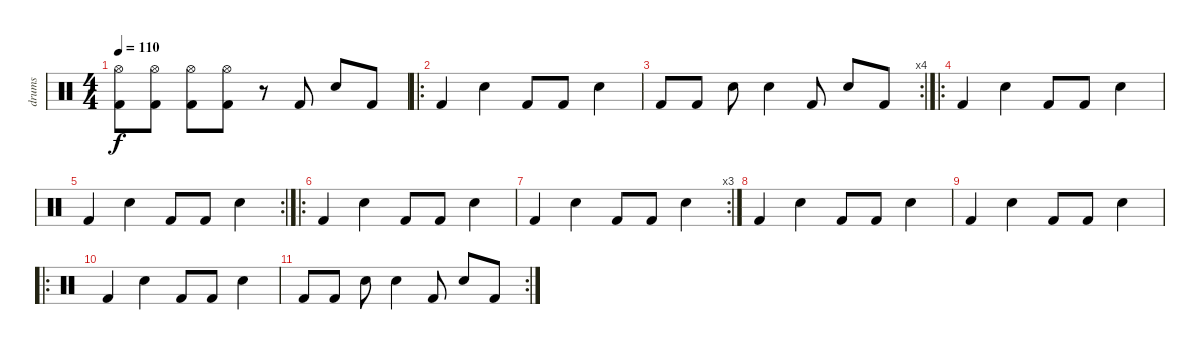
\track ("drums" "drums") {instrument percussion}
\staff {score}
\articulation defaults
\ts (4 4)
\tempo 110
\clef neutral
\ks c
("Kick (hit) 2" "Hi-Hat (open)").8{dy f} ("Kick (hit) 2" "Hi-Hat (open)").8 ("Kick (hit) 2" "Hi-Hat (open)").8 ("Kick (hit) 2" "Hi-Hat (open)").8 r.8 "Kick (hit) 2".8 "Snare (hit) 2".8 "Kick (hit) 2".8 |
\ro "Kick (hit) 2".4 "Snare (hit) 2".4 "Kick (hit) 2".8 "Kick (hit) 2".8 "Snare (hit) 2".4
|
\rc 4 "Kick (hit) 2".8 "Kick (hit) 2".8 "Snare (hit) 2".8 "Snare (hit) 2".4 "Kick (hit) 2".8 "Snare (hit) 2".8 "Kick (hit) 2".8
|
\ro "Kick (hit) 2".4 "Snare (hit) 2".4 "Kick (hit) 2".8 "Kick (hit) 2".8 "Snare (hit) 2".4
|
\rc 2 "Kick (hit) 2".4 "Snare (hit) 2".4 "Kick (hit) 2".8 "Kick (hit) 2".8 "Snare (hit) 2".4
|
\ro "Kick (hit) 2".4 "Snare (hit) 2".4 "Kick (hit) 2".8 "Kick (hit) 2".8 "Snare (hit) 2".4
|
\rc 3 "Kick (hit) 2".4 "Snare (hit) 2".4 "Kick (hit) 2".8 "Kick (hit) 2".8 "Snare (hit) 2".4
|
"Kick (hit) 2".4 "Snare (hit) 2".4 "Kick (hit) 2".8 "Kick (hit) 2".8 "Snare (hit) 2".4 |
"Kick (hit) 2".4 "Snare (hit) 2".4 "Kick (hit) 2".8 "Kick (hit) 2".8 "Snare (hit) 2".4 |
\ro "Kick (hit) 2".4 "Snare (hit) 2".4 "Kick (hit) 2".8 "Kick (hit) 2".8 "Snare (hit) 2".4
|
\rc 2 "Kick (hit) 2".8 "Kick (hit) 2".8 "Snare (hit) 2".8 "Snare (hit) 2".4 "Kick (hit) 2".8 "Snare (hit) 2".8 "Kick (hit) 2".8
